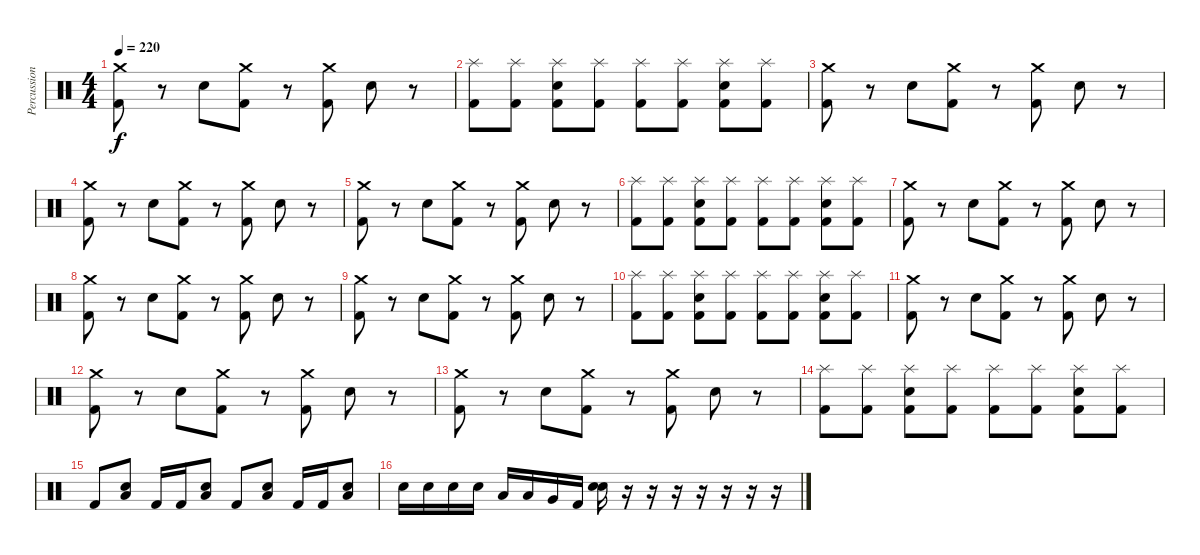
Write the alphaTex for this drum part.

\track ("Percussion" "Percussion") {instrument percussion}
\staff {score}
\articulation defaults
\ts (4 4)
\tempo 220
\clef neutral
\ks c
("Crash medium (hit)" "Kick (hit) 2").8{dy f} r.8 "Snare (hit) 2".8 ("Crash medium (hit)" "Kick (hit) 2").8 r.8 ("Crash medium (hit)" "Kick (hit) 2").8 "Snare (hit) 2".8 r.8 |
("Splash (hit)" "Kick (hit) 2").8 ("Splash (hit)" "Kick (hit) 2").8 ("Splash (hit)" "Snare (hit) 2" "Kick (hit) 2").8 ("Splash (hit)" "Kick (hit) 2").8 ("Splash (hit)" "Kick (hit) 2").8 ("Splash (hit)" "Kick (hit) 2").8 ("Splash (hit)" "Snare (hit) 2" "Kick (hit) 2").8 ("Splash (hit)" "Kick (hit) 2").8 |
("Crash medium (hit)" "Kick (hit) 2").8 r.8 "Snare (hit) 2".8 ("Crash medium (hit)" "Kick (hit) 2").8 r.8 ("Crash medium (hit)" "Kick (hit) 2").8 "Snare (hit) 2".8 r.8 |
("Crash medium (hit)" "Kick (hit) 2").8 r.8 "Snare (hit) 2".8 ("Crash medium (hit)" "Kick (hit) 2").8 r.8 ("Crash medium (hit)" "Kick (hit) 2").8 "Snare (hit) 2".8 r.8 |
("Crash medium (hit)" "Kick (hit) 2").8 r.8 "Snare (hit) 2".8 ("Crash medium (hit)" "Kick (hit) 2").8 r.8 ("Crash medium (hit)" "Kick (hit) 2").8 "Snare (hit) 2".8 r.8 |
("Splash (hit)" "Kick (hit) 2").8 ("Splash (hit)" "Kick (hit) 2").8 ("Splash (hit)" "Snare (hit) 2" "Kick (hit) 2").8 ("Splash (hit)" "Kick (hit) 2").8 ("Splash (hit)" "Kick (hit) 2").8 ("Splash (hit)" "Kick (hit) 2").8 ("Splash (hit)" "Snare (hit) 2" "Kick (hit) 2").8 ("Splash (hit)" "Kick (hit) 2").8 |
("Crash medium (hit)" "Kick (hit) 2").8 r.8 "Snare (hit) 2".8 ("Crash medium (hit)" "Kick (hit) 2").8 r.8 ("Crash medium (hit)" "Kick (hit) 2").8 "Snare (hit) 2".8 r.8 |
("Crash medium (hit)" "Kick (hit) 2").8 r.8 "Snare (hit) 2".8 ("Crash medium (hit)" "Kick (hit) 2").8 r.8 ("Crash medium (hit)" "Kick (hit) 2").8 "Snare (hit) 2".8 r.8 |
("Crash medium (hit)" "Kick (hit) 2").8 r.8 "Snare (hit) 2".8 ("Crash medium (hit)" "Kick (hit) 2").8 r.8 ("Crash medium (hit)" "Kick (hit) 2").8 "Snare (hit) 2".8 r.8 |
("Splash (hit)" "Kick (hit) 2").8 ("Splash (hit)" "Kick (hit) 2").8 ("Splash (hit)" "Snare (hit) 2" "Kick (hit) 2").8 ("Splash (hit)" "Kick (hit) 2").8 ("Splash (hit)" "Kick (hit) 2").8 ("Splash (hit)" "Kick (hit) 2").8 ("Splash (hit)" "Snare (hit) 2" "Kick (hit) 2").8 ("Splash (hit)" "Kick (hit) 2").8 |
("Crash medium (hit)" "Kick (hit) 2").8 r.8 "Snare (hit) 2".8 ("Crash medium (hit)" "Kick (hit) 2").8 r.8 ("Crash medium (hit)" "Kick (hit) 2").8 "Snare (hit) 2".8 r.8 |
("Crash medium (hit)" "Kick (hit) 2").8 r.8 "Snare (hit) 2".8 ("Crash medium (hit)" "Kick (hit) 2").8 r.8 ("Crash medium (hit)" "Kick (hit) 2").8 "Snare (hit) 2".8 r.8 |
("Crash medium (hit)" "Kick (hit) 2").8 r.8 "Snare (hit) 2".8 ("Crash medium (hit)" "Kick (hit) 2").8 r.8 ("Crash medium (hit)" "Kick (hit) 2").8 "Snare (hit) 2".8 r.8 |
("Splash (hit)" "Kick (hit) 2").8 ("Splash (hit)" "Kick (hit) 2").8 ("Splash (hit)" "Snare (hit) 2" "Kick (hit) 2").8 ("Splash (hit)" "Kick (hit) 2").8 ("Splash (hit)" "Kick (hit) 2").8 ("Splash (hit)" "Kick (hit) 2").8 ("Splash (hit)" "Snare (hit) 2" "Kick (hit) 2").8 ("Splash (hit)" "Kick (hit) 2").8 |
"Kick (hit) 2".8 ("Low Floor Tom (hit)" "Snare (hit) 2").8 "Kick (hit) 2".16 "Kick (hit) 2".16 ("Low Floor Tom (hit)" "Snare (hit) 2").8 "Kick (hit) 2".8 ("Low Floor Tom (hit)" "Snare (hit) 2").8 "Kick (hit) 2".16 "Kick (hit) 2".16 ("Low Floor Tom (hit)" "Snare (hit) 2").8 |
"Snare (hit) 2".16 "Snare (hit) 2".16 "Snare (hit) 2".16 "Snare (hit) 2".16 "Low Tom (hit)".16 "Low Tom (hit)".16 "Very Low Tom (hit)".16 "Kick (hit) 2".16 ("Snare (hit) 2" "Snare (hit) 2").16 r.16 r.16 r.16 r.16 r.16 r.16 r.16
